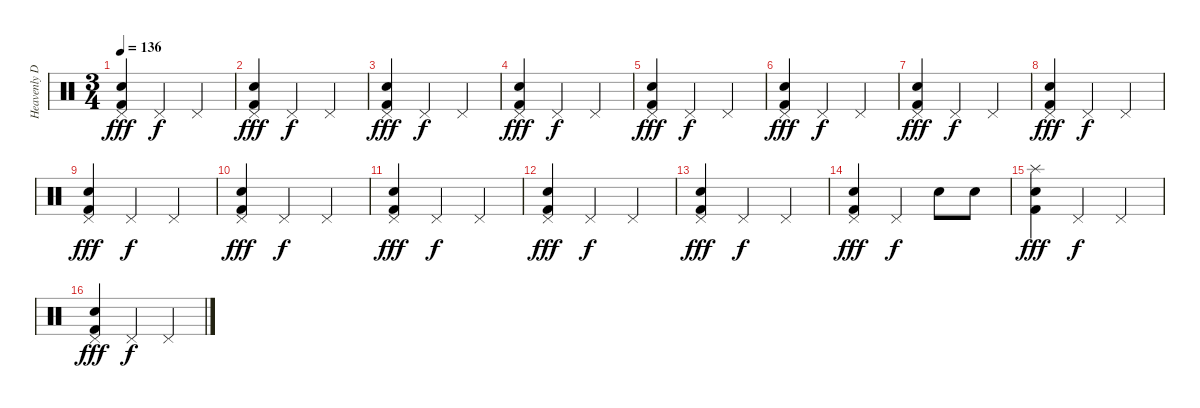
\track ("Heavenly Drums" "Heavenly D") {instrument percussion}
\staff {score}
\articulation defaults
\ts (3 4)
\tempo 136
\clef neutral
\ks c
("Snare (hit) 2" "Pedal Hi-Hat (hit)" "Kick (hit) 2").4{dy fff} "Pedal Hi-Hat (hit)".4{dy f} "Pedal Hi-Hat (hit)".4 |
("Snare (hit) 2" "Pedal Hi-Hat (hit)" "Kick (hit) 2").4{dy fff} "Pedal Hi-Hat (hit)".4{dy f} "Pedal Hi-Hat (hit)".4 |
("Snare (hit) 2" "Pedal Hi-Hat (hit)" "Kick (hit) 2").4{dy fff} "Pedal Hi-Hat (hit)".4{dy f} "Pedal Hi-Hat (hit)".4 |
("Snare (hit) 2" "Pedal Hi-Hat (hit)" "Kick (hit) 2").4{dy fff} "Pedal Hi-Hat (hit)".4{dy f} "Pedal Hi-Hat (hit)".4 |
("Snare (hit) 2" "Pedal Hi-Hat (hit)" "Kick (hit) 2").4{dy fff} "Pedal Hi-Hat (hit)".4{dy f} "Pedal Hi-Hat (hit)".4 |
("Snare (hit) 2" "Pedal Hi-Hat (hit)" "Kick (hit) 2").4{dy fff} "Pedal Hi-Hat (hit)".4{dy f} "Pedal Hi-Hat (hit)".4 |
("Snare (hit) 2" "Pedal Hi-Hat (hit)" "Kick (hit) 2").4{dy fff} "Pedal Hi-Hat (hit)".4{dy f} "Pedal Hi-Hat (hit)".4 |
("Snare (hit) 2" "Pedal Hi-Hat (hit)" "Kick (hit) 2").4{dy fff} "Pedal Hi-Hat (hit)".4{dy f} "Pedal Hi-Hat (hit)".4 |
("Snare (hit) 2" "Pedal Hi-Hat (hit)" "Kick (hit) 2").4{dy fff} "Pedal Hi-Hat (hit)".4{dy f} "Pedal Hi-Hat (hit)".4 |
("Snare (hit) 2" "Pedal Hi-Hat (hit)" "Kick (hit) 2").4{dy fff} "Pedal Hi-Hat (hit)".4{dy f} "Pedal Hi-Hat (hit)".4 |
("Snare (hit) 2" "Pedal Hi-Hat (hit)" "Kick (hit) 2").4{dy fff} "Pedal Hi-Hat (hit)".4{dy f} "Pedal Hi-Hat (hit)".4 |
("Snare (hit) 2" "Pedal Hi-Hat (hit)" "Kick (hit) 2").4{dy fff} "Pedal Hi-Hat (hit)".4{dy f} "Pedal Hi-Hat (hit)".4 |
("Snare (hit) 2" "Pedal Hi-Hat (hit)" "Kick (hit) 2").4{dy fff} "Pedal Hi-Hat (hit)".4{dy f} "Pedal Hi-Hat (hit)".4 |
("Snare (hit) 2" "Pedal Hi-Hat (hit)" "Kick (hit) 2").4{dy fff} "Pedal Hi-Hat (hit)".4{dy f} "Electric Snare (hit)".8 "Electric Snare (hit)".8 |
("Splash (hit)" "Snare (hit) 2" "Kick (hit) 2").4{dy fff} "Pedal Hi-Hat (hit)".4{dy f} "Pedal Hi-Hat (hit)".4 |
("Snare (hit) 2" "Pedal Hi-Hat (hit)" "Kick (hit) 2").4{dy fff} "Pedal Hi-Hat (hit)".4{dy f} "Pedal Hi-Hat (hit)".4
